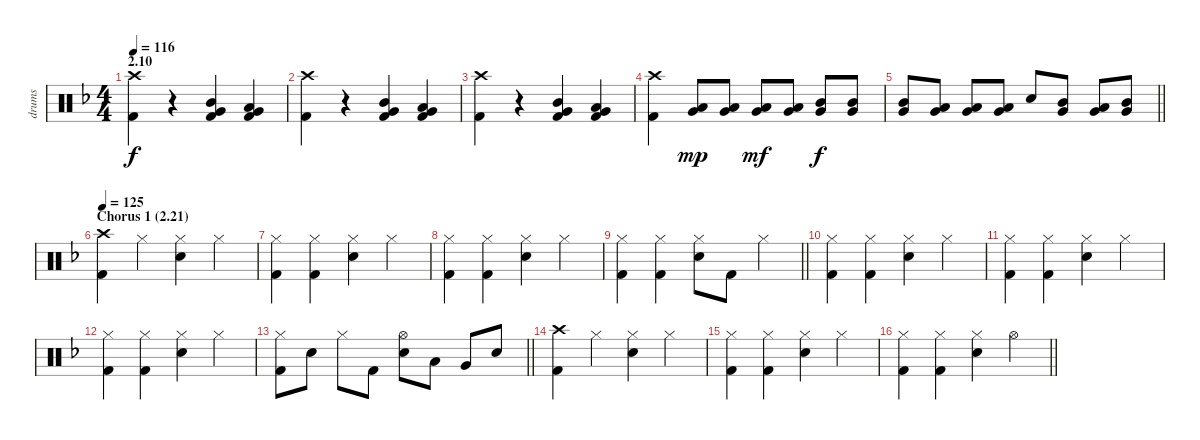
\track ("drums" "drums") {instrument percussion}
\staff {score}
\articulation defaults
\ts (4 4)
\section ("" "2.10")
\tempo 116
\clef neutral
\ks f
("Crash high (hit)" "Kick (hit) 2").4{dy f} r.4 ("Mid Tom (hit)" "Very Low Tom (hit)" "Kick (hit) 2").4 ("Low Tom (hit)" "Very Low Tom (hit)" "Kick (hit) 2").4 |
("Crash high (hit)" "Kick (hit) 2").4 r.4 ("Mid Tom (hit)" "Very Low Tom (hit)" "Kick (hit) 2").4 ("Low Tom (hit)" "Very Low Tom (hit)" "Kick (hit) 2").4 |
("Crash high (hit)" "Kick (hit) 2").4 r.4 ("Mid Tom (hit)" "Very Low Tom (hit)" "Kick (hit) 2").4 ("Low Tom (hit)" "Very Low Tom (hit)" "Kick (hit) 2").4 |
("Crash high (hit)" "Kick (hit) 2").4 ("Low Tom (hit)" "Very Low Tom (hit)").8{dy mp} ("Low Tom (hit)" "Very Low Tom (hit)").8 ("Low Tom (hit)" "Very Low Tom (hit)").8{dy mf} ("Low Tom (hit)" "Very Low Tom (hit)").8 ("Mid Tom (hit)" "Very Low Tom (hit)").8{dy f} ("Mid Tom (hit)" "Very Low Tom (hit)").8 |
\barLineRight lightlight
("Mid Tom (hit)" "Very Low Tom (hit)").8 ("Low Tom (hit)" "Very Low Tom (hit)").8 ("Low Tom (hit)" "Very Low Tom (hit)").8 ("Low Tom (hit)" "Very Low Tom (hit)").8 "Electric Snare (hit)".8 ("Mid Tom (hit)" "Very Low Tom (hit)").8 ("Low Tom (hit)" "Very Low Tom (hit)").8 ("Mid Tom (hit)" "Very Low Tom (hit)").8 |
\section ("" "Chorus 1 (2.21)")
\tempo 125
("Crash high (hit)" "Kick (hit) 2").4 "Hi-Hat (closed)".4 ("Hi-Hat (closed)" "Electric Snare (hit)").4 "Hi-Hat (closed)".4 |
("Hi-Hat (closed)" "Kick (hit) 2").4 ("Hi-Hat (closed)" "Kick (hit) 2").4 ("Hi-Hat (closed)" "Electric Snare (hit)").4 "Hi-Hat (closed)".4 |
("Hi-Hat (closed)" "Kick (hit) 2").4 ("Hi-Hat (closed)" "Kick (hit) 2").4 ("Hi-Hat (closed)" "Electric Snare (hit)").4 "Hi-Hat (closed)".4 |
\barLineRight lightlight
("Hi-Hat (closed)" "Kick (hit) 2").4 ("Hi-Hat (closed)" "Kick (hit) 2").4 ("Hi-Hat (closed)" "Electric Snare (hit)").8 "Kick (hit) 2".8 "Hi-Hat (closed)".4 |
("Hi-Hat (closed)" "Kick (hit) 2").4 ("Hi-Hat (closed)" "Kick (hit) 2").4 ("Hi-Hat (closed)" "Electric Snare (hit)").4 "Hi-Hat (closed)".4 |
("Hi-Hat (closed)" "Kick (hit) 2").4 ("Hi-Hat (closed)" "Kick (hit) 2").4 ("Hi-Hat (closed)" "Electric Snare (hit)").4 "Hi-Hat (closed)".4 |
("Hi-Hat (closed)" "Kick (hit) 2").4 ("Hi-Hat (closed)" "Kick (hit) 2").4 ("Hi-Hat (closed)" "Electric Snare (hit)").4 "Hi-Hat (closed)".4 |
\barLineRight lightlight
("Hi-Hat (closed)" "Kick (hit) 2").8 "Electric Snare (hit)".8 "Hi-Hat (closed)".8 "Kick (hit) 2".8 ("Hi-Hat (open)" "Electric Snare (hit)").8 "Low Tom (hit)".8 "Very Low Tom (hit)".8 "Electric Snare (hit)".8 |
("Crash high (hit)" "Kick (hit) 2").4 "Hi-Hat (closed)".4 ("Hi-Hat (closed)" "Electric Snare (hit)").4 "Hi-Hat (closed)".4 |
("Hi-Hat (closed)" "Kick (hit) 2").4 ("Hi-Hat (closed)" "Kick (hit) 2").4 ("Hi-Hat (closed)" "Electric Snare (hit)").4 "Hi-Hat (closed)".4 |
\barLineRight lightlight
("Hi-Hat (closed)" "Kick (hit) 2").4 ("Hi-Hat (closed)" "Kick (hit) 2").4 ("Hi-Hat (closed)" "Electric Snare (hit)").4 "Hi-Hat (open)".4
